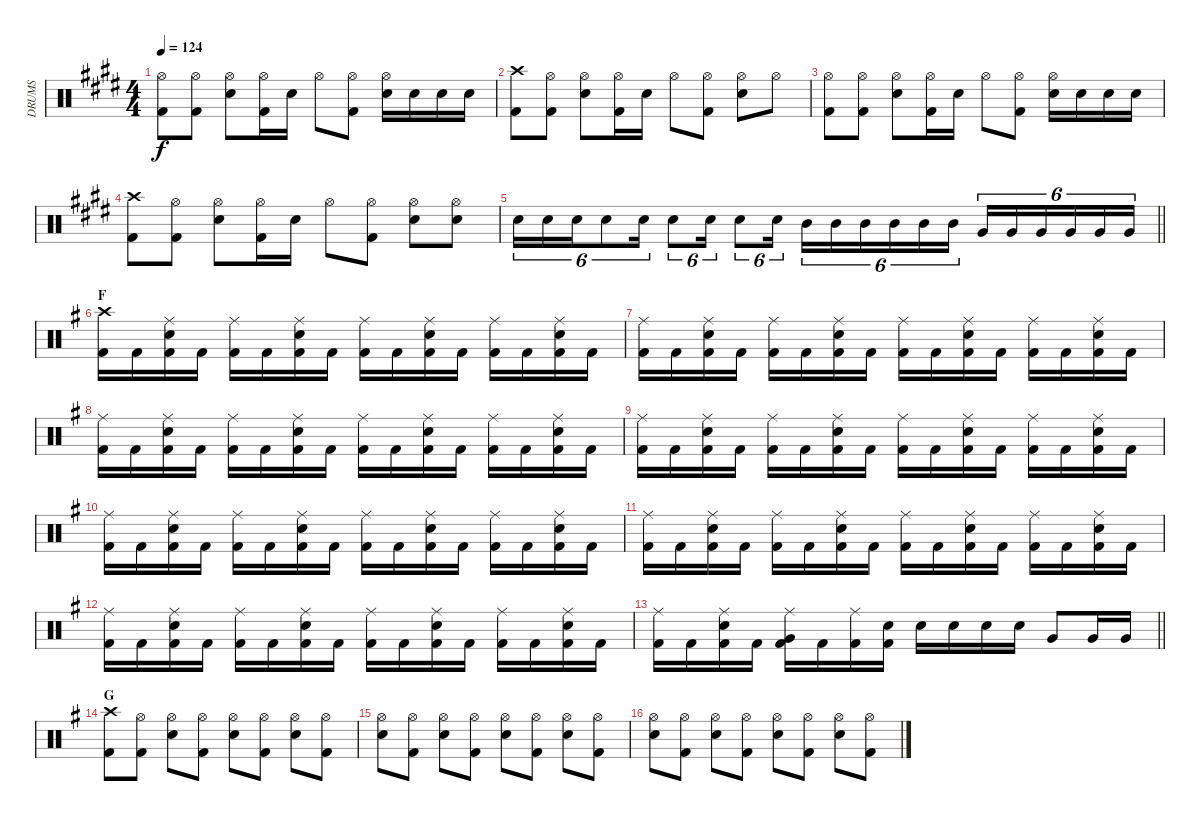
\track ("DRUMS" "DRUMS") {instrument percussion}
\staff {score}
\articulation defaults
\ts (4 4)
\tempo 124
\clef neutral
\ks e
("Hi-Hat (open)" "Kick (hit) 2").8{dy f} ("Hi-Hat (open)" "Kick (hit) 2").8 ("Hi-Hat (open)" "Snare (hit) 2").8 ("Hi-Hat (open)" "Kick (hit) 2").16 "Snare (hit) 2".16 "Hi-Hat (open)".8 ("Hi-Hat (open)" "Kick (hit) 2").8 ("Hi-Hat (open)" "Snare (hit) 2").16 "Snare (hit) 2".16 "Snare (hit) 2".16 "Snare (hit) 2".16 |
("Crash high (hit)" "Kick (hit) 2").8 ("Hi-Hat (open)" "Kick (hit) 2").8 ("Hi-Hat (open)" "Snare (hit) 2").8 ("Hi-Hat (open)" "Kick (hit) 2").16 "Snare (hit) 2".16 "Hi-Hat (open)".8 ("Hi-Hat (open)" "Kick (hit) 2").8 ("Hi-Hat (open)" "Snare (hit) 2").8 "Hi-Hat (open)".8 |
("Hi-Hat (open)" "Kick (hit) 2").8 ("Hi-Hat (open)" "Kick (hit) 2").8 ("Hi-Hat (open)" "Snare (hit) 2").8 ("Hi-Hat (open)" "Kick (hit) 2").16 "Snare (hit) 2".16 "Hi-Hat (open)".8 ("Hi-Hat (open)" "Kick (hit) 2").8 ("Hi-Hat (open)" "Snare (hit) 2").16 "Snare (hit) 2".16 "Snare (hit) 2".16 "Snare (hit) 2".16 |
("Crash high (hit)" "Kick (hit) 2").8 ("Hi-Hat (open)" "Kick (hit) 2").8 ("Hi-Hat (open)" "Snare (hit) 2").8 ("Hi-Hat (open)" "Kick (hit) 2").16 "Snare (hit) 2".16 "Hi-Hat (open)".8 ("Hi-Hat (open)" "Kick (hit) 2").8 ("Hi-Hat (open)" "Snare (hit) 2").8 ("Hi-Hat (open)" "Snare (hit) 2").8 |
\barLineRight lightlight "Snare (hit) 2".16{tu (6 4)} "Snare (hit) 2".16{tu (6 4)} "Snare (hit) 2".16{tu (6 4)} "Snare (hit) 2".8{tu (6 4)} "Snare (hit) 2".16{tu (6 4)} "Snare (hit) 2".8{tu (6 4)} "Snare (hit) 2".16{tu (6 4)} "Snare (hit) 2".8{tu (6 4)} "Snare (hit) 2".16{tu (6 4)} "Mid Tom (hit)".16{tu (6 4)} "Mid Tom (hit)".16{tu (6 4)} "Mid Tom (hit)".16{tu (6 4)} "Mid Tom (hit)".16{tu (6 4)} "Mid Tom (hit)".16{tu (6 4)} "Mid Tom (hit)".16{tu (6 4)} "Very Low Tom (hit)".16{tu (6 4)} "Very Low Tom (hit)".16{tu (6 4)} "Very Low Tom (hit)".16{tu (6 4)} "Very Low Tom (hit)".16{tu (6 4)} "Very Low Tom (hit)".16{tu (6 4)} "Very Low Tom (hit)".16{tu (6 4)}
|
\section ("" "F")
\ks g
("Crash high (hit)" "Kick (hit) 2").16 "Kick (hit) 2".16 ("Ride (middle)" "Kick (hit) 2" "Snare (hit) 2").16 "Kick (hit) 2".16 ("Ride (middle)" "Kick (hit) 2").16 "Kick (hit) 2".16 ("Ride (middle)" "Kick (hit) 2" "Snare (hit) 2").16 "Kick (hit) 2".16 ("Ride (middle)" "Kick (hit) 2").16 "Kick (hit) 2".16 ("Ride (middle)" "Kick (hit) 2" "Snare (hit) 2").16 "Kick (hit) 2".16 ("Ride (middle)" "Kick (hit) 2").16 "Kick (hit) 2".16 ("Ride (middle)" "Kick (hit) 2" "Snare (hit) 2").16 "Kick (hit) 2".16 |
("Ride (middle)" "Kick (hit) 2").16 "Kick (hit) 2".16 ("Ride (middle)" "Kick (hit) 2" "Snare (hit) 2").16 "Kick (hit) 2".16 ("Ride (middle)" "Kick (hit) 2").16 "Kick (hit) 2".16 ("Ride (middle)" "Kick (hit) 2" "Snare (hit) 2").16 "Kick (hit) 2".16 ("Ride (middle)" "Kick (hit) 2").16 "Kick (hit) 2".16 ("Ride (middle)" "Kick (hit) 2" "Snare (hit) 2").16 "Kick (hit) 2".16 ("Ride (middle)" "Kick (hit) 2").16 "Kick (hit) 2".16 ("Ride (middle)" "Kick (hit) 2" "Snare (hit) 2").16 "Kick (hit) 2".16 |
("Ride (middle)" "Kick (hit) 2").16 "Kick (hit) 2".16 ("Ride (middle)" "Kick (hit) 2" "Snare (hit) 2").16 "Kick (hit) 2".16 ("Ride (middle)" "Kick (hit) 2").16 "Kick (hit) 2".16 ("Ride (middle)" "Kick (hit) 2" "Snare (hit) 2").16 "Kick (hit) 2".16 ("Ride (middle)" "Kick (hit) 2").16 "Kick (hit) 2".16 ("Ride (middle)" "Kick (hit) 2" "Snare (hit) 2").16 "Kick (hit) 2".16 ("Ride (middle)" "Kick (hit) 2").16 "Kick (hit) 2".16 ("Ride (middle)" "Kick (hit) 2" "Snare (hit) 2").16 "Kick (hit) 2".16 |
("Ride (middle)" "Kick (hit) 2").16 "Kick (hit) 2".16 ("Ride (middle)" "Kick (hit) 2" "Snare (hit) 2").16 "Kick (hit) 2".16 ("Ride (middle)" "Kick (hit) 2").16 "Kick (hit) 2".16 ("Ride (middle)" "Kick (hit) 2" "Snare (hit) 2").16 "Kick (hit) 2".16 ("Ride (middle)" "Kick (hit) 2").16 "Kick (hit) 2".16 ("Ride (middle)" "Kick (hit) 2" "Snare (hit) 2").16 "Kick (hit) 2".16 ("Ride (middle)" "Kick (hit) 2").16 "Kick (hit) 2".16 ("Ride (middle)" "Kick (hit) 2" "Snare (hit) 2").16 "Kick (hit) 2".16 |
("Ride (middle)" "Kick (hit) 2").16 "Kick (hit) 2".16 ("Ride (middle)" "Kick (hit) 2" "Snare (hit) 2").16 "Kick (hit) 2".16 ("Ride (middle)" "Kick (hit) 2").16 "Kick (hit) 2".16 ("Ride (middle)" "Kick (hit) 2" "Snare (hit) 2").16 "Kick (hit) 2".16 ("Ride (middle)" "Kick (hit) 2").16 "Kick (hit) 2".16 ("Ride (middle)" "Kick (hit) 2" "Snare (hit) 2").16 "Kick (hit) 2".16 ("Ride (middle)" "Kick (hit) 2").16 "Kick (hit) 2".16 ("Ride (middle)" "Kick (hit) 2" "Snare (hit) 2").16 "Kick (hit) 2".16 |
("Ride (middle)" "Kick (hit) 2").16 "Kick (hit) 2".16 ("Ride (middle)" "Kick (hit) 2" "Snare (hit) 2").16 "Kick (hit) 2".16 ("Ride (middle)" "Kick (hit) 2").16 "Kick (hit) 2".16 ("Ride (middle)" "Kick (hit) 2" "Snare (hit) 2").16 "Kick (hit) 2".16 ("Ride (middle)" "Kick (hit) 2").16 "Kick (hit) 2".16 ("Ride (middle)" "Kick (hit) 2" "Snare (hit) 2").16 "Kick (hit) 2".16 ("Ride (middle)" "Kick (hit) 2").16 "Kick (hit) 2".16 ("Ride (middle)" "Kick (hit) 2" "Snare (hit) 2").16 "Kick (hit) 2".16 |
("Ride (middle)" "Kick (hit) 2").16 "Kick (hit) 2".16 ("Ride (middle)" "Kick (hit) 2" "Snare (hit) 2").16 "Kick (hit) 2".16 ("Ride (middle)" "Kick (hit) 2").16 "Kick (hit) 2".16 ("Ride (middle)" "Kick (hit) 2" "Snare (hit) 2").16 "Kick (hit) 2".16 ("Ride (middle)" "Kick (hit) 2").16 "Kick (hit) 2".16 ("Ride (middle)" "Kick (hit) 2" "Snare (hit) 2").16 "Kick (hit) 2".16 ("Ride (middle)" "Kick (hit) 2").16 "Kick (hit) 2".16 ("Ride (middle)" "Kick (hit) 2" "Snare (hit) 2").16 "Kick (hit) 2".16 |
\barLineRight lightlight
("Ride (middle)" "Kick (hit) 2").16 "Kick (hit) 2".16 ("Ride (middle)" "Kick (hit) 2" "Snare (hit) 2").16 "Kick (hit) 2".16 ("Ride (middle)" "Kick (hit) 2" "Very Low Tom (hit)").16 "Kick (hit) 2".16 ("Ride (middle)" "Kick (hit) 2").16 ("Kick (hit) 2" "Snare (hit) 2").16 "Snare (hit) 2".16 "Snare (hit) 2".16 "Snare (hit) 2".16 "Snare (hit) 2".16 "Very Low Tom (hit)".8 "Very Low Tom (hit)".16 "Very Low Tom (hit)".16 |
\section ("" "G")
("Crash high (hit)" "Kick (hit) 2").8 ("Hi-Hat (open)" "Kick (hit) 2").8 ("Hi-Hat (open)" "Snare (hit) 2").8 ("Hi-Hat (open)" "Kick (hit) 2").8 ("Hi-Hat (open)" "Snare (hit) 2").8 ("Hi-Hat (open)" "Kick (hit) 2").8 ("Hi-Hat (open)" "Snare (hit) 2").8 ("Hi-Hat (open)" "Kick (hit) 2").8 |
("Hi-Hat (open)" "Snare (hit) 2").8 ("Hi-Hat (open)" "Kick (hit) 2").8 ("Hi-Hat (open)" "Snare (hit) 2").8 ("Hi-Hat (open)" "Kick (hit) 2").8 ("Hi-Hat (open)" "Snare (hit) 2").8 ("Hi-Hat (open)" "Kick (hit) 2").8 ("Hi-Hat (open)" "Snare (hit) 2").8 ("Hi-Hat (open)" "Kick (hit) 2").8 |
("Hi-Hat (open)" "Snare (hit) 2").8 ("Hi-Hat (open)" "Kick (hit) 2").8 ("Hi-Hat (open)" "Snare (hit) 2").8 ("Hi-Hat (open)" "Kick (hit) 2").8 ("Hi-Hat (open)" "Snare (hit) 2").8 ("Hi-Hat (open)" "Kick (hit) 2").8 ("Hi-Hat (open)" "Snare (hit) 2").8 ("Hi-Hat (open)" "Kick (hit) 2").8
